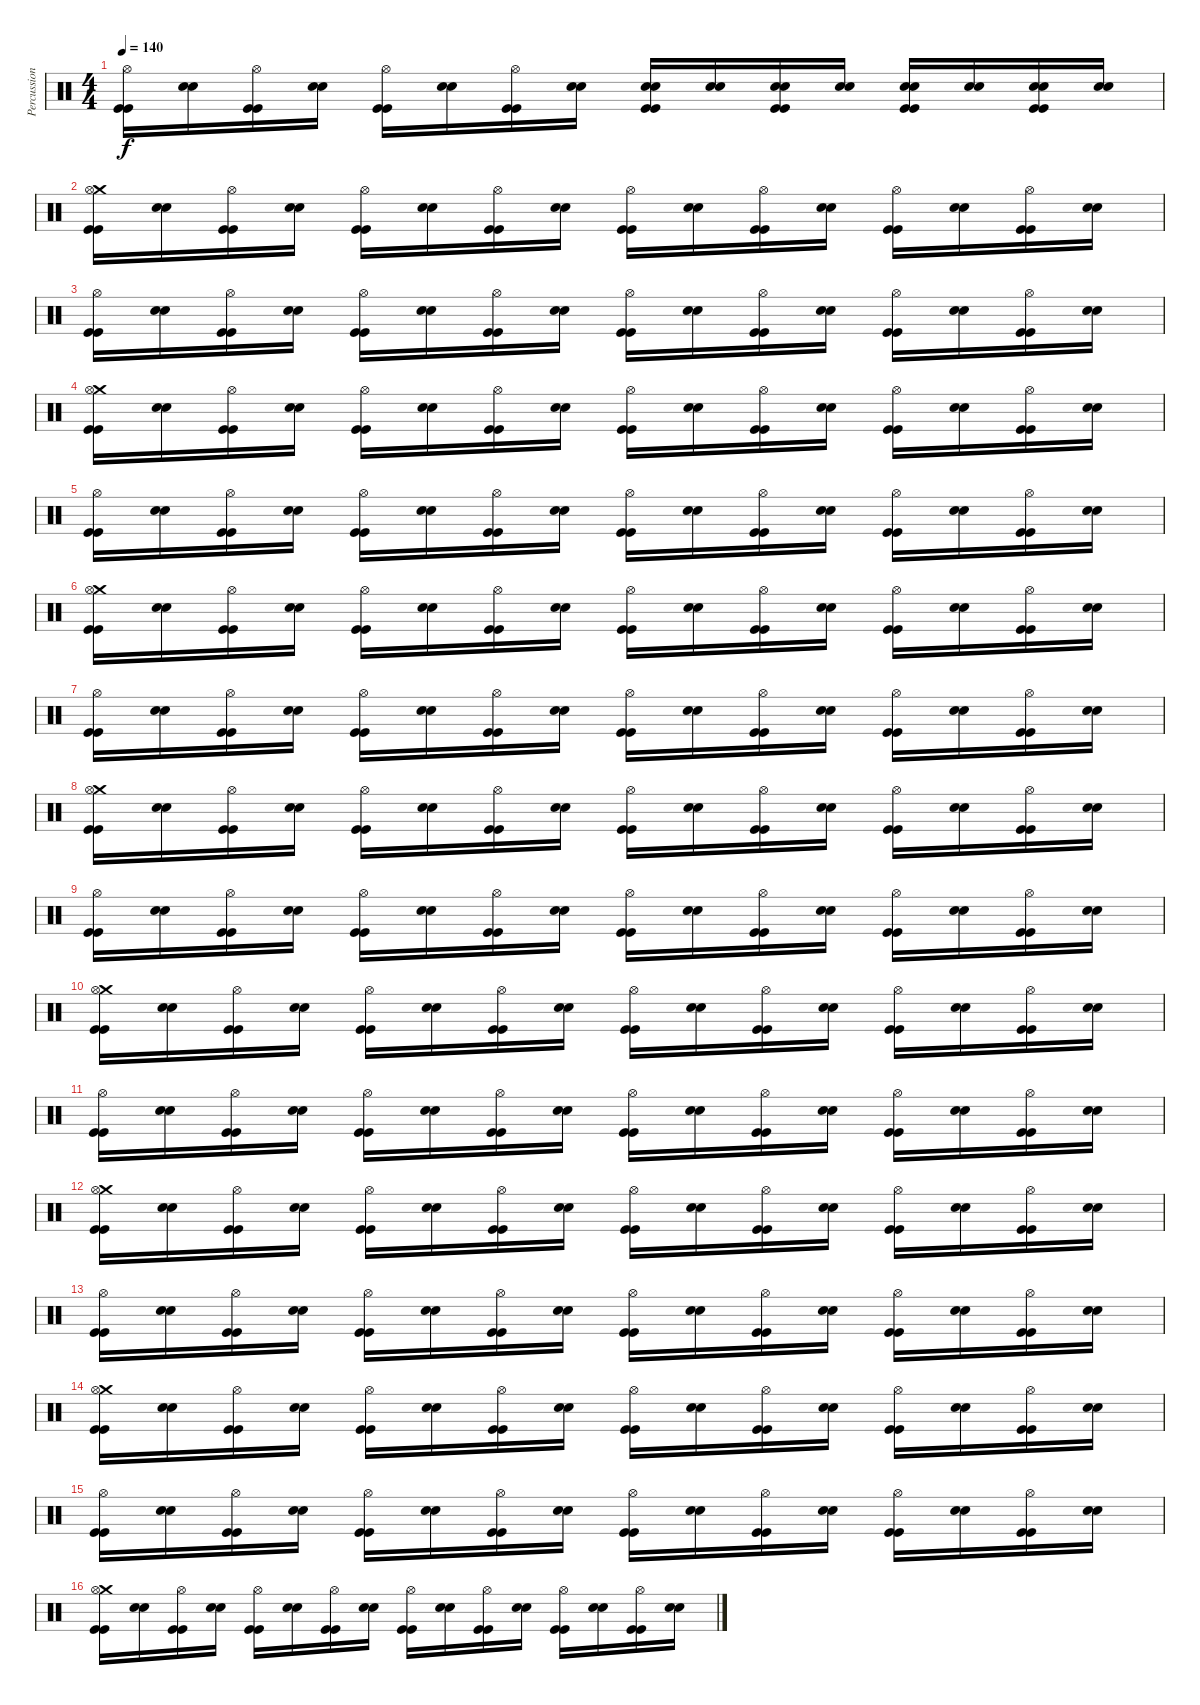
\track ("Percussion" "Percussion") {instrument percussion}
\staff {score}
\articulation defaults
\ts (4 4)
\tempo 140
\clef neutral
\ks c
("Hi-Hat (open)" "Kick (hit)" "Kick (hit)").16{dy f} ("Snare (hit) 2" "Snare (hit) 2").16 ("Hi-Hat (open)" "Kick (hit)" "Kick (hit)").16 ("Snare (hit) 2" "Snare (hit) 2").16 ("Hi-Hat (open)" "Kick (hit)" "Kick (hit)").16 ("Snare (hit) 2" "Snare (hit) 2").16 ("Hi-Hat (open)" "Kick (hit)" "Kick (hit)").16 ("Snare (hit) 2" "Snare (hit) 2").16 ("Snare (hit) 2" "Snare (hit) 2" "Kick (hit)" "Kick (hit)").16 ("Snare (hit) 2" "Snare (hit) 2").16 ("Snare (hit) 2" "Snare (hit) 2" "Kick (hit)" "Kick (hit)").16 ("Snare (hit) 2" "Snare (hit) 2").16 ("Snare (hit) 2" "Snare (hit) 2" "Kick (hit)" "Kick (hit)").16 ("Snare (hit) 2" "Snare (hit) 2").16 ("Snare (hit) 2" "Snare (hit) 2" "Kick (hit)" "Kick (hit)").16 ("Snare (hit) 2" "Snare (hit) 2").16 |
("Crash medium (hit)" "Hi-Hat (open)" "Kick (hit)" "Kick (hit)").16 ("Snare (hit) 2" "Snare (hit) 2").16 ("Hi-Hat (open)" "Kick (hit)" "Kick (hit)").16 ("Snare (hit) 2" "Snare (hit) 2").16 ("Hi-Hat (open)" "Kick (hit)" "Kick (hit)").16 ("Snare (hit) 2" "Snare (hit) 2").16 ("Hi-Hat (open)" "Kick (hit)" "Kick (hit)").16 ("Snare (hit) 2" "Snare (hit) 2").16 ("Hi-Hat (open)" "Kick (hit)" "Kick (hit)").16 ("Snare (hit) 2" "Snare (hit) 2").16 ("Hi-Hat (open)" "Kick (hit)" "Kick (hit)").16 ("Snare (hit) 2" "Snare (hit) 2").16 ("Hi-Hat (open)" "Kick (hit)" "Kick (hit)").16 ("Snare (hit) 2" "Snare (hit) 2").16 ("Hi-Hat (open)" "Kick (hit)" "Kick (hit)").16 ("Snare (hit) 2" "Snare (hit) 2").16 |
("Hi-Hat (open)" "Kick (hit)" "Kick (hit)").16 ("Snare (hit) 2" "Snare (hit) 2").16 ("Hi-Hat (open)" "Kick (hit)" "Kick (hit)").16 ("Snare (hit) 2" "Snare (hit) 2").16 ("Hi-Hat (open)" "Kick (hit)" "Kick (hit)").16 ("Snare (hit) 2" "Snare (hit) 2").16 ("Hi-Hat (open)" "Kick (hit)" "Kick (hit)").16 ("Snare (hit) 2" "Snare (hit) 2").16 ("Hi-Hat (open)" "Kick (hit)" "Kick (hit)").16 ("Snare (hit) 2" "Snare (hit) 2").16 ("Hi-Hat (open)" "Kick (hit)" "Kick (hit)").16 ("Snare (hit) 2" "Snare (hit) 2").16 ("Hi-Hat (open)" "Kick (hit)" "Kick (hit)").16 ("Snare (hit) 2" "Snare (hit) 2").16 ("Hi-Hat (open)" "Kick (hit)" "Kick (hit)").16 ("Snare (hit) 2" "Snare (hit) 2").16 |
("Crash medium (hit)" "Hi-Hat (open)" "Kick (hit)" "Kick (hit)").16 ("Snare (hit) 2" "Snare (hit) 2").16 ("Hi-Hat (open)" "Kick (hit)" "Kick (hit)").16 ("Snare (hit) 2" "Snare (hit) 2").16 ("Hi-Hat (open)" "Kick (hit)" "Kick (hit)").16 ("Snare (hit) 2" "Snare (hit) 2").16 ("Hi-Hat (open)" "Kick (hit)" "Kick (hit)").16 ("Snare (hit) 2" "Snare (hit) 2").16 ("Hi-Hat (open)" "Kick (hit)" "Kick (hit)").16 ("Snare (hit) 2" "Snare (hit) 2").16 ("Hi-Hat (open)" "Kick (hit)" "Kick (hit)").16 ("Snare (hit) 2" "Snare (hit) 2").16 ("Hi-Hat (open)" "Kick (hit)" "Kick (hit)").16 ("Snare (hit) 2" "Snare (hit) 2").16 ("Hi-Hat (open)" "Kick (hit)" "Kick (hit)").16 ("Snare (hit) 2" "Snare (hit) 2").16 |
("Hi-Hat (open)" "Kick (hit)" "Kick (hit)").16 ("Snare (hit) 2" "Snare (hit) 2").16 ("Hi-Hat (open)" "Kick (hit)" "Kick (hit)").16 ("Snare (hit) 2" "Snare (hit) 2").16 ("Hi-Hat (open)" "Kick (hit)" "Kick (hit)").16 ("Snare (hit) 2" "Snare (hit) 2").16 ("Hi-Hat (open)" "Kick (hit)" "Kick (hit)").16 ("Snare (hit) 2" "Snare (hit) 2").16 ("Hi-Hat (open)" "Kick (hit)" "Kick (hit)").16 ("Snare (hit) 2" "Snare (hit) 2").16 ("Hi-Hat (open)" "Kick (hit)" "Kick (hit)").16 ("Snare (hit) 2" "Snare (hit) 2").16 ("Hi-Hat (open)" "Kick (hit)" "Kick (hit)").16 ("Snare (hit) 2" "Snare (hit) 2").16 ("Hi-Hat (open)" "Kick (hit)" "Kick (hit)").16 ("Snare (hit) 2" "Snare (hit) 2").16 |
("Crash medium (hit)" "Hi-Hat (open)" "Kick (hit)" "Kick (hit)").16 ("Snare (hit) 2" "Snare (hit) 2").16 ("Hi-Hat (open)" "Kick (hit)" "Kick (hit)").16 ("Snare (hit) 2" "Snare (hit) 2").16 ("Hi-Hat (open)" "Kick (hit)" "Kick (hit)").16 ("Snare (hit) 2" "Snare (hit) 2").16 ("Hi-Hat (open)" "Kick (hit)" "Kick (hit)").16 ("Snare (hit) 2" "Snare (hit) 2").16 ("Hi-Hat (open)" "Kick (hit)" "Kick (hit)").16 ("Snare (hit) 2" "Snare (hit) 2").16 ("Hi-Hat (open)" "Kick (hit)" "Kick (hit)").16 ("Snare (hit) 2" "Snare (hit) 2").16 ("Hi-Hat (open)" "Kick (hit)" "Kick (hit)").16 ("Snare (hit) 2" "Snare (hit) 2").16 ("Hi-Hat (open)" "Kick (hit)" "Kick (hit)").16 ("Snare (hit) 2" "Snare (hit) 2").16 |
("Hi-Hat (open)" "Kick (hit)" "Kick (hit)").16 ("Snare (hit) 2" "Snare (hit) 2").16 ("Hi-Hat (open)" "Kick (hit)" "Kick (hit)").16 ("Snare (hit) 2" "Snare (hit) 2").16 ("Hi-Hat (open)" "Kick (hit)" "Kick (hit)").16 ("Snare (hit) 2" "Snare (hit) 2").16 ("Hi-Hat (open)" "Kick (hit)" "Kick (hit)").16 ("Snare (hit) 2" "Snare (hit) 2").16 ("Hi-Hat (open)" "Kick (hit)" "Kick (hit)").16 ("Snare (hit) 2" "Snare (hit) 2").16 ("Hi-Hat (open)" "Kick (hit)" "Kick (hit)").16 ("Snare (hit) 2" "Snare (hit) 2").16 ("Hi-Hat (open)" "Kick (hit)" "Kick (hit)").16 ("Snare (hit) 2" "Snare (hit) 2").16 ("Hi-Hat (open)" "Kick (hit)" "Kick (hit)").16 ("Snare (hit) 2" "Snare (hit) 2").16 |
("Crash medium (hit)" "Hi-Hat (open)" "Kick (hit)" "Kick (hit)").16 ("Snare (hit) 2" "Snare (hit) 2").16 ("Hi-Hat (open)" "Kick (hit)" "Kick (hit)").16 ("Snare (hit) 2" "Snare (hit) 2").16 ("Hi-Hat (open)" "Kick (hit)" "Kick (hit)").16 ("Snare (hit) 2" "Snare (hit) 2").16 ("Hi-Hat (open)" "Kick (hit)" "Kick (hit)").16 ("Snare (hit) 2" "Snare (hit) 2").16 ("Hi-Hat (open)" "Kick (hit)" "Kick (hit)").16 ("Snare (hit) 2" "Snare (hit) 2").16 ("Hi-Hat (open)" "Kick (hit)" "Kick (hit)").16 ("Snare (hit) 2" "Snare (hit) 2").16 ("Hi-Hat (open)" "Kick (hit)" "Kick (hit)").16 ("Snare (hit) 2" "Snare (hit) 2").16 ("Hi-Hat (open)" "Kick (hit)" "Kick (hit)").16 ("Snare (hit) 2" "Snare (hit) 2").16 |
("Hi-Hat (open)" "Kick (hit)" "Kick (hit)").16 ("Snare (hit) 2" "Snare (hit) 2").16 ("Hi-Hat (open)" "Kick (hit)" "Kick (hit)").16 ("Snare (hit) 2" "Snare (hit) 2").16 ("Hi-Hat (open)" "Kick (hit)" "Kick (hit)").16 ("Snare (hit) 2" "Snare (hit) 2").16 ("Hi-Hat (open)" "Kick (hit)" "Kick (hit)").16 ("Snare (hit) 2" "Snare (hit) 2").16 ("Hi-Hat (open)" "Kick (hit)" "Kick (hit)").16 ("Snare (hit) 2" "Snare (hit) 2").16 ("Hi-Hat (open)" "Kick (hit)" "Kick (hit)").16 ("Snare (hit) 2" "Snare (hit) 2").16 ("Hi-Hat (open)" "Kick (hit)" "Kick (hit)").16 ("Snare (hit) 2" "Snare (hit) 2").16 ("Hi-Hat (open)" "Kick (hit)" "Kick (hit)").16 ("Snare (hit) 2" "Snare (hit) 2").16 |
("Crash medium (hit)" "Hi-Hat (open)" "Kick (hit)" "Kick (hit)").16 ("Snare (hit) 2" "Snare (hit) 2").16 ("Hi-Hat (open)" "Kick (hit)" "Kick (hit)").16 ("Snare (hit) 2" "Snare (hit) 2").16 ("Hi-Hat (open)" "Kick (hit)" "Kick (hit)").16 ("Snare (hit) 2" "Snare (hit) 2").16 ("Hi-Hat (open)" "Kick (hit)" "Kick (hit)").16 ("Snare (hit) 2" "Snare (hit) 2").16 ("Hi-Hat (open)" "Kick (hit)" "Kick (hit)").16 ("Snare (hit) 2" "Snare (hit) 2").16 ("Hi-Hat (open)" "Kick (hit)" "Kick (hit)").16 ("Snare (hit) 2" "Snare (hit) 2").16 ("Hi-Hat (open)" "Kick (hit)" "Kick (hit)").16 ("Snare (hit) 2" "Snare (hit) 2").16 ("Hi-Hat (open)" "Kick (hit)" "Kick (hit)").16 ("Snare (hit) 2" "Snare (hit) 2").16 |
("Hi-Hat (open)" "Kick (hit)" "Kick (hit)").16 ("Snare (hit) 2" "Snare (hit) 2").16 ("Hi-Hat (open)" "Kick (hit)" "Kick (hit)").16 ("Snare (hit) 2" "Snare (hit) 2").16 ("Hi-Hat (open)" "Kick (hit)" "Kick (hit)").16 ("Snare (hit) 2" "Snare (hit) 2").16 ("Hi-Hat (open)" "Kick (hit)" "Kick (hit)").16 ("Snare (hit) 2" "Snare (hit) 2").16 ("Hi-Hat (open)" "Kick (hit)" "Kick (hit)").16 ("Snare (hit) 2" "Snare (hit) 2").16 ("Hi-Hat (open)" "Kick (hit)" "Kick (hit)").16 ("Snare (hit) 2" "Snare (hit) 2").16 ("Hi-Hat (open)" "Kick (hit)" "Kick (hit)").16 ("Snare (hit) 2" "Snare (hit) 2").16 ("Hi-Hat (open)" "Kick (hit)" "Kick (hit)").16 ("Snare (hit) 2" "Snare (hit) 2").16 |
("Crash medium (hit)" "Hi-Hat (open)" "Kick (hit)" "Kick (hit)").16 ("Snare (hit) 2" "Snare (hit) 2").16 ("Hi-Hat (open)" "Kick (hit)" "Kick (hit)").16 ("Snare (hit) 2" "Snare (hit) 2").16 ("Hi-Hat (open)" "Kick (hit)" "Kick (hit)").16 ("Snare (hit) 2" "Snare (hit) 2").16 ("Hi-Hat (open)" "Kick (hit)" "Kick (hit)").16 ("Snare (hit) 2" "Snare (hit) 2").16 ("Hi-Hat (open)" "Kick (hit)" "Kick (hit)").16 ("Snare (hit) 2" "Snare (hit) 2").16 ("Hi-Hat (open)" "Kick (hit)" "Kick (hit)").16 ("Snare (hit) 2" "Snare (hit) 2").16 ("Hi-Hat (open)" "Kick (hit)" "Kick (hit)").16 ("Snare (hit) 2" "Snare (hit) 2").16 ("Hi-Hat (open)" "Kick (hit)" "Kick (hit)").16 ("Snare (hit) 2" "Snare (hit) 2").16 |
("Hi-Hat (open)" "Kick (hit)" "Kick (hit)").16 ("Snare (hit) 2" "Snare (hit) 2").16 ("Hi-Hat (open)" "Kick (hit)" "Kick (hit)").16 ("Snare (hit) 2" "Snare (hit) 2").16 ("Hi-Hat (open)" "Kick (hit)" "Kick (hit)").16 ("Snare (hit) 2" "Snare (hit) 2").16 ("Hi-Hat (open)" "Kick (hit)" "Kick (hit)").16 ("Snare (hit) 2" "Snare (hit) 2").16 ("Hi-Hat (open)" "Kick (hit)" "Kick (hit)").16 ("Snare (hit) 2" "Snare (hit) 2").16 ("Hi-Hat (open)" "Kick (hit)" "Kick (hit)").16 ("Snare (hit) 2" "Snare (hit) 2").16 ("Hi-Hat (open)" "Kick (hit)" "Kick (hit)").16 ("Snare (hit) 2" "Snare (hit) 2").16 ("Hi-Hat (open)" "Kick (hit)" "Kick (hit)").16 ("Snare (hit) 2" "Snare (hit) 2").16 |
("Crash medium (hit)" "Hi-Hat (open)" "Kick (hit)" "Kick (hit)").16 ("Snare (hit) 2" "Snare (hit) 2").16 ("Hi-Hat (open)" "Kick (hit)" "Kick (hit)").16 ("Snare (hit) 2" "Snare (hit) 2").16 ("Hi-Hat (open)" "Kick (hit)" "Kick (hit)").16 ("Snare (hit) 2" "Snare (hit) 2").16 ("Hi-Hat (open)" "Kick (hit)" "Kick (hit)").16 ("Snare (hit) 2" "Snare (hit) 2").16 ("Hi-Hat (open)" "Kick (hit)" "Kick (hit)").16 ("Snare (hit) 2" "Snare (hit) 2").16 ("Hi-Hat (open)" "Kick (hit)" "Kick (hit)").16 ("Snare (hit) 2" "Snare (hit) 2").16 ("Hi-Hat (open)" "Kick (hit)" "Kick (hit)").16 ("Snare (hit) 2" "Snare (hit) 2").16 ("Hi-Hat (open)" "Kick (hit)" "Kick (hit)").16 ("Snare (hit) 2" "Snare (hit) 2").16 |
("Hi-Hat (open)" "Kick (hit)" "Kick (hit)").16 ("Snare (hit) 2" "Snare (hit) 2").16 ("Hi-Hat (open)" "Kick (hit)" "Kick (hit)").16 ("Snare (hit) 2" "Snare (hit) 2").16 ("Hi-Hat (open)" "Kick (hit)" "Kick (hit)").16 ("Snare (hit) 2" "Snare (hit) 2").16 ("Hi-Hat (open)" "Kick (hit)" "Kick (hit)").16 ("Snare (hit) 2" "Snare (hit) 2").16 ("Hi-Hat (open)" "Kick (hit)" "Kick (hit)").16 ("Snare (hit) 2" "Snare (hit) 2").16 ("Hi-Hat (open)" "Kick (hit)" "Kick (hit)").16 ("Snare (hit) 2" "Snare (hit) 2").16 ("Hi-Hat (open)" "Kick (hit)" "Kick (hit)").16 ("Snare (hit) 2" "Snare (hit) 2").16 ("Hi-Hat (open)" "Kick (hit)" "Kick (hit)").16 ("Snare (hit) 2" "Snare (hit) 2").16 |
("Crash medium (hit)" "Hi-Hat (open)" "Kick (hit)" "Kick (hit)").16 ("Snare (hit) 2" "Snare (hit) 2").16 ("Hi-Hat (open)" "Kick (hit)" "Kick (hit)").16 ("Snare (hit) 2" "Snare (hit) 2").16 ("Hi-Hat (open)" "Kick (hit)" "Kick (hit)").16 ("Snare (hit) 2" "Snare (hit) 2").16 ("Hi-Hat (open)" "Kick (hit)" "Kick (hit)").16 ("Snare (hit) 2" "Snare (hit) 2").16 ("Hi-Hat (open)" "Kick (hit)" "Kick (hit)").16 ("Snare (hit) 2" "Snare (hit) 2").16 ("Hi-Hat (open)" "Kick (hit)" "Kick (hit)").16 ("Snare (hit) 2" "Snare (hit) 2").16 ("Hi-Hat (open)" "Kick (hit)" "Kick (hit)").16 ("Snare (hit) 2" "Snare (hit) 2").16 ("Hi-Hat (open)" "Kick (hit)" "Kick (hit)").16 ("Snare (hit) 2" "Snare (hit) 2").16
